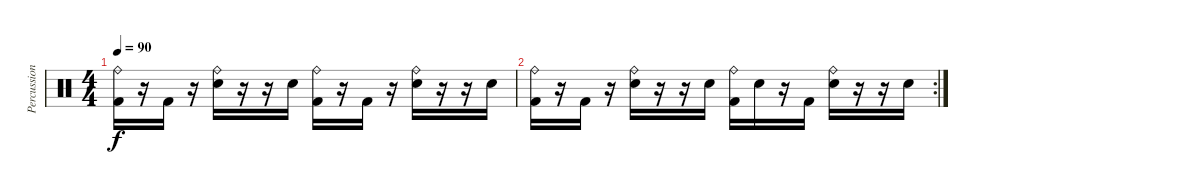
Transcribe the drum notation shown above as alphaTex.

\track ("Percussions" "Percussion") {instrument percussion}
\staff {score}
\articulation defaults
\ts (4 4)
\tempo 90
\clef neutral
\ks c
("Ride (bell)" "Kick (hit) 2").16{dy f} r.16 "Kick (hit) 2".16 r.16 ("Ride (bell)" "Electric Snare (hit)").16 r.16 r.16 "Electric Snare (hit)".16 ("Ride (bell)" "Kick (hit) 2").16 r.16 "Kick (hit) 2".16 r.16 ("Ride (bell)" "Electric Snare (hit)").16 r.16 r.16 "Electric Snare (hit)".16 |
\rc 2
("Ride (bell)" "Kick (hit) 2").16 r.16 "Kick (hit) 2".16 r.16 ("Ride (bell)" "Electric Snare (hit)").16 r.16 r.16 "Electric Snare (hit)".16 ("Ride (bell)" "Kick (hit) 2").16 "Electric Snare (hit)".16 r.16 "Kick (hit) 2".16 ("Ride (bell)" "Electric Snare (hit)").16 r.16 r.16 "Electric Snare (hit)".16
